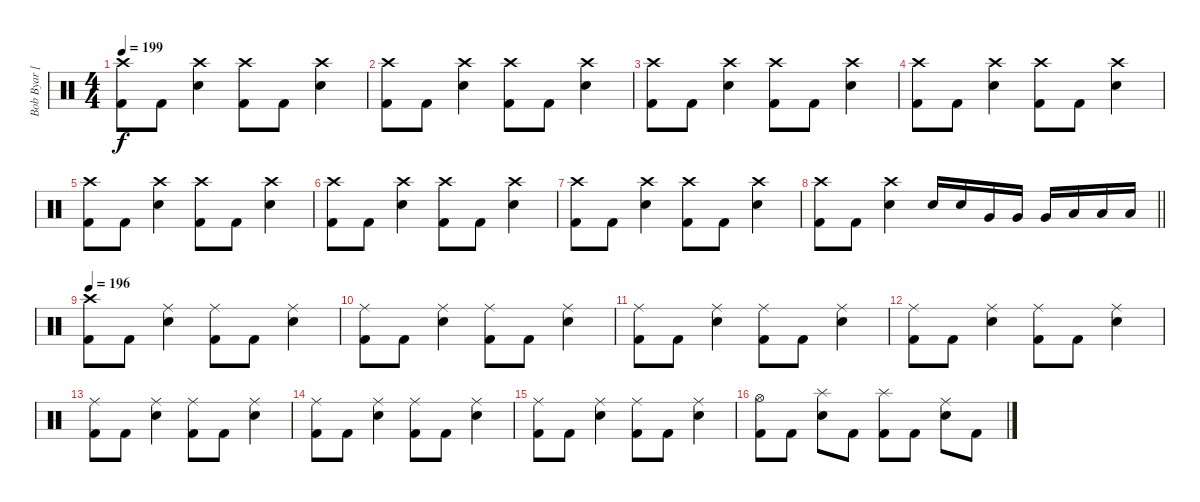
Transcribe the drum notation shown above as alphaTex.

\track ("Bob Byar [Drums]" "Bob Byar [") {instrument percussion}
\staff {score}
\articulation defaults
\ts (4 4)
\tempo 199
\clef neutral
\ks c
("Crash high (hit)" "Kick (hit) 2").8{dy f} "Kick (hit) 2".8 ("Crash high (hit)" "Electric Snare (hit)").4 ("Crash high (hit)" "Kick (hit) 2").8 "Kick (hit) 2".8 ("Crash high (hit)" "Electric Snare (hit)").4 |
("Crash high (hit)" "Kick (hit) 2").8 "Kick (hit) 2".8 ("Crash high (hit)" "Electric Snare (hit)").4 ("Crash high (hit)" "Kick (hit) 2").8 "Kick (hit) 2".8 ("Crash high (hit)" "Electric Snare (hit)").4 |
("Crash high (hit)" "Kick (hit) 2").8 "Kick (hit) 2".8 ("Crash high (hit)" "Electric Snare (hit)").4 ("Crash high (hit)" "Kick (hit) 2").8 "Kick (hit) 2".8 ("Crash high (hit)" "Electric Snare (hit)").4 |
("Crash high (hit)" "Kick (hit) 2").8 "Kick (hit) 2".8 ("Crash high (hit)" "Electric Snare (hit)").4 ("Crash high (hit)" "Kick (hit) 2").8 "Kick (hit) 2".8 ("Crash high (hit)" "Electric Snare (hit)").4 |
("Crash high (hit)" "Kick (hit) 2").8 "Kick (hit) 2".8 ("Crash high (hit)" "Electric Snare (hit)").4 ("Crash high (hit)" "Kick (hit) 2").8 "Kick (hit) 2".8 ("Crash high (hit)" "Electric Snare (hit)").4 |
("Crash high (hit)" "Kick (hit) 2").8 "Kick (hit) 2".8 ("Crash high (hit)" "Electric Snare (hit)").4 ("Crash high (hit)" "Kick (hit) 2").8 "Kick (hit) 2".8 ("Crash high (hit)" "Electric Snare (hit)").4 |
("Crash high (hit)" "Kick (hit) 2").8 "Kick (hit) 2".8 ("Crash high (hit)" "Electric Snare (hit)").4 ("Crash high (hit)" "Kick (hit) 2").8 "Kick (hit) 2".8 ("Crash high (hit)" "Electric Snare (hit)").4 |
\barLineRight lightlight
("Crash high (hit)" "Kick (hit) 2").8 "Kick (hit) 2".8 ("Crash high (hit)" "Electric Snare (hit)").4 "Electric Snare (hit)".16 "Electric Snare (hit)".16 "Very Low Tom (hit)".16 "Very Low Tom (hit)".16 "Very Low Tom (hit)".16 "Low Floor Tom (hit)".16 "Low Floor Tom (hit)".16 "Low Floor Tom (hit)".16 |
\tempo 196
("Crash high (hit)" "Kick (hit) 2").8 "Kick (hit) 2".8 ("Ride (middle)" "Electric Snare (hit)").4 ("Ride (middle)" "Kick (hit) 2").8 "Kick (hit) 2".8 ("Ride (middle)" "Electric Snare (hit)").4 |
("Ride (middle)" "Kick (hit) 2").8 "Kick (hit) 2".8 ("Ride (middle)" "Electric Snare (hit)").4 ("Ride (middle)" "Kick (hit) 2").8 "Kick (hit) 2".8 ("Ride (middle)" "Electric Snare (hit)").4 |
("Ride (middle)" "Kick (hit) 2").8 "Kick (hit) 2".8 ("Ride (middle)" "Electric Snare (hit)").4 ("Ride (middle)" "Kick (hit) 2").8 "Kick (hit) 2".8 ("Ride (middle)" "Electric Snare (hit)").4 |
("Ride (middle)" "Kick (hit) 2").8 "Kick (hit) 2".8 ("Ride (middle)" "Electric Snare (hit)").4 ("Ride (middle)" "Kick (hit) 2").8 "Kick (hit) 2".8 ("Ride (middle)" "Electric Snare (hit)").4 |
("Ride (middle)" "Kick (hit) 2").8 "Kick (hit) 2".8 ("Ride (middle)" "Electric Snare (hit)").4 ("Ride (middle)" "Kick (hit) 2").8 "Kick (hit) 2".8 ("Ride (middle)" "Electric Snare (hit)").4 |
("Ride (middle)" "Kick (hit) 2").8 "Kick (hit) 2".8 ("Ride (middle)" "Electric Snare (hit)").4 ("Ride (middle)" "Kick (hit) 2").8 "Kick (hit) 2".8 ("Ride (middle)" "Electric Snare (hit)").4 |
("Ride (middle)" "Kick (hit) 2").8 "Kick (hit) 2".8 ("Ride (middle)" "Electric Snare (hit)").4 ("Ride (middle)" "Kick (hit) 2").8 "Kick (hit) 2".8 ("Ride (middle)" "Electric Snare (hit)").4 |
("Hi-Hat (open)" "Kick (hit) 2").8 "Kick (hit) 2".8 ("Splash (hit)" "Electric Snare (hit)").8 "Kick (hit) 2".8 ("Splash (hit)" "Kick (hit) 2").8 "Kick (hit) 2".8 ("Ride (middle)" "Electric Snare (hit)").8 "Kick (hit) 2".8
